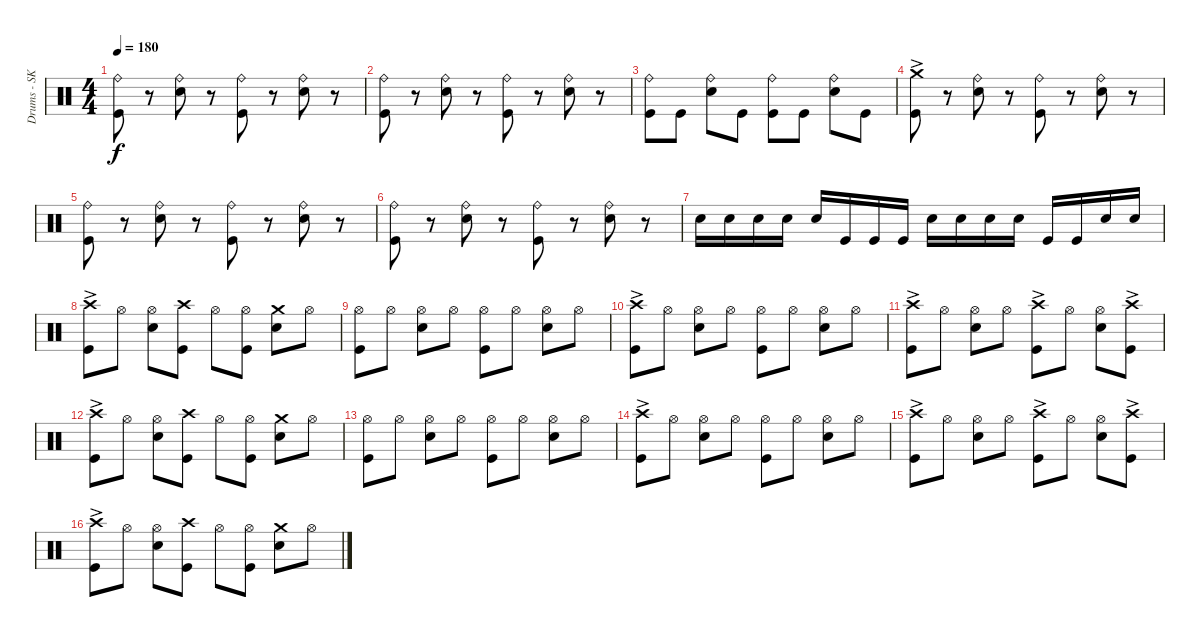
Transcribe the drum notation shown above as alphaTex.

\track ("Drums - SK" "Drums - SK") {instrument percussion}
\staff {score}
\articulation defaults
\ts (4 4)
\tempo 180
\clef neutral
\ks c
("Ride (bell)" "Kick (hit)").8{dy f} r.8 ("Ride (bell)" "Snare (hit) 2").8 r.8 ("Ride (bell)" "Kick (hit)").8 r.8 ("Ride (bell)" "Snare (hit) 2").8 r.8 |
("Ride (bell)" "Kick (hit)").8 r.8 ("Ride (bell)" "Snare (hit) 2").8 r.8 ("Ride (bell)" "Kick (hit)").8 r.8 ("Ride (bell)" "Snare (hit) 2").8 r.8 |
("Ride (bell)" "Kick (hit)").8 "Kick (hit)".8 ("Ride (bell)" "Snare (hit) 2").8 "Kick (hit)".8 ("Ride (bell)" "Kick (hit)").8 "Kick (hit)".8 ("Ride (bell)" "Snare (hit) 2").8 "Kick (hit)".8 |
("Crash medium (hit)"{ac} "Kick (hit)"{ac}).8 r.8 ("Ride (bell)" "Snare (hit) 2").8 r.8 ("Ride (bell)" "Kick (hit)").8 r.8 ("Ride (bell)" "Snare (hit) 2").8 r.8 |
("Ride (bell)" "Kick (hit)").8 r.8 ("Ride (bell)" "Snare (hit) 2").8 r.8 ("Ride (bell)" "Kick (hit)").8 r.8 ("Ride (bell)" "Snare (hit) 2").8 r.8 |
("Ride (bell)" "Kick (hit)").8 r.8 ("Ride (bell)" "Snare (hit) 2").8 r.8 ("Ride (bell)" "Kick (hit)").8 r.8 ("Ride (bell)" "Snare (hit) 2").8 r.8 |
"Snare (hit) 2".16 "Snare (hit) 2".16 "Snare (hit) 2".16 "Snare (hit) 2".16 "Snare (hit) 2".16 "Kick (hit)".16 "Kick (hit)".16 "Kick (hit)".16 "Snare (hit) 2".16 "Snare (hit) 2".16 "Snare (hit) 2".16 "Snare (hit) 2".16 "Kick (hit)".16 "Kick (hit)".16 "Snare (hit) 2".16 "Snare (hit) 2".16 |
("Crash high (hit)"{ac} "Kick (hit)"{ac}).8 "Hi-Hat (open)".8 ("Hi-Hat (open)" "Snare (hit) 2").8 ("Kick (hit)" "Crash high (hit)").8 "Hi-Hat (open)".8 ("Kick (hit)" "Hi-Hat (open)").8 ("Snare (hit) 2" "Crash medium (hit)").8 "Hi-Hat (open)".8 |
("Hi-Hat (open)" "Kick (hit)").8 "Hi-Hat (open)".8 ("Hi-Hat (open)" "Snare (hit) 2").8 "Hi-Hat (open)".8 ("Hi-Hat (open)" "Kick (hit)").8 "Hi-Hat (open)".8 ("Hi-Hat (open)" "Snare (hit) 2").8 "Hi-Hat (open)".8 |
("Kick (hit)"{ac} "Crash high (hit)"{ac}).8 "Hi-Hat (open)".8 ("Hi-Hat (open)" "Snare (hit) 2").8 "Hi-Hat (open)".8 ("Hi-Hat (open)" "Kick (hit)").8 "Hi-Hat (open)".8 ("Hi-Hat (open)" "Snare (hit) 2").8 "Hi-Hat (open)".8 |
("Kick (hit)"{ac} "Crash high (hit)"{ac}).8 "Hi-Hat (open)".8 ("Hi-Hat (open)" "Snare (hit) 2").8 "Hi-Hat (open)".8 ("Kick (hit)"{ac} "Crash high (hit)"{ac}).8 "Hi-Hat (open)".8 ("Hi-Hat (open)" "Snare (hit) 2").8 ("Kick (hit)"{ac} "Crash high (hit)"{ac}).8 |
("Crash high (hit)"{ac} "Kick (hit)"{ac}).8 "Hi-Hat (open)".8 ("Hi-Hat (open)" "Snare (hit) 2").8 ("Kick (hit)" "Crash high (hit)").8 "Hi-Hat (open)".8 ("Kick (hit)" "Hi-Hat (open)").8 ("Snare (hit) 2" "Crash medium (hit)").8 "Hi-Hat (open)".8 |
("Hi-Hat (open)" "Kick (hit)").8 "Hi-Hat (open)".8 ("Hi-Hat (open)" "Snare (hit) 2").8 "Hi-Hat (open)".8 ("Hi-Hat (open)" "Kick (hit)").8 "Hi-Hat (open)".8 ("Hi-Hat (open)" "Snare (hit) 2").8 "Hi-Hat (open)".8 |
("Kick (hit)"{ac} "Crash high (hit)"{ac}).8 "Hi-Hat (open)".8 ("Hi-Hat (open)" "Snare (hit) 2").8 "Hi-Hat (open)".8 ("Hi-Hat (open)" "Kick (hit)").8 "Hi-Hat (open)".8 ("Hi-Hat (open)" "Snare (hit) 2").8 "Hi-Hat (open)".8 |
("Kick (hit)"{ac} "Crash high (hit)"{ac}).8 "Hi-Hat (open)".8 ("Hi-Hat (open)" "Snare (hit) 2").8 "Hi-Hat (open)".8 ("Kick (hit)"{ac} "Crash high (hit)"{ac}).8 "Hi-Hat (open)".8 ("Hi-Hat (open)" "Snare (hit) 2").8 ("Kick (hit)"{ac} "Crash high (hit)"{ac}).8 |
("Crash high (hit)"{ac} "Kick (hit)"{ac}).8 "Hi-Hat (open)".8 ("Hi-Hat (open)" "Snare (hit) 2").8 ("Kick (hit)" "Crash high (hit)").8 "Hi-Hat (open)".8 ("Kick (hit)" "Hi-Hat (open)").8 ("Snare (hit) 2" "Crash medium (hit)").8 "Hi-Hat (open)".8
